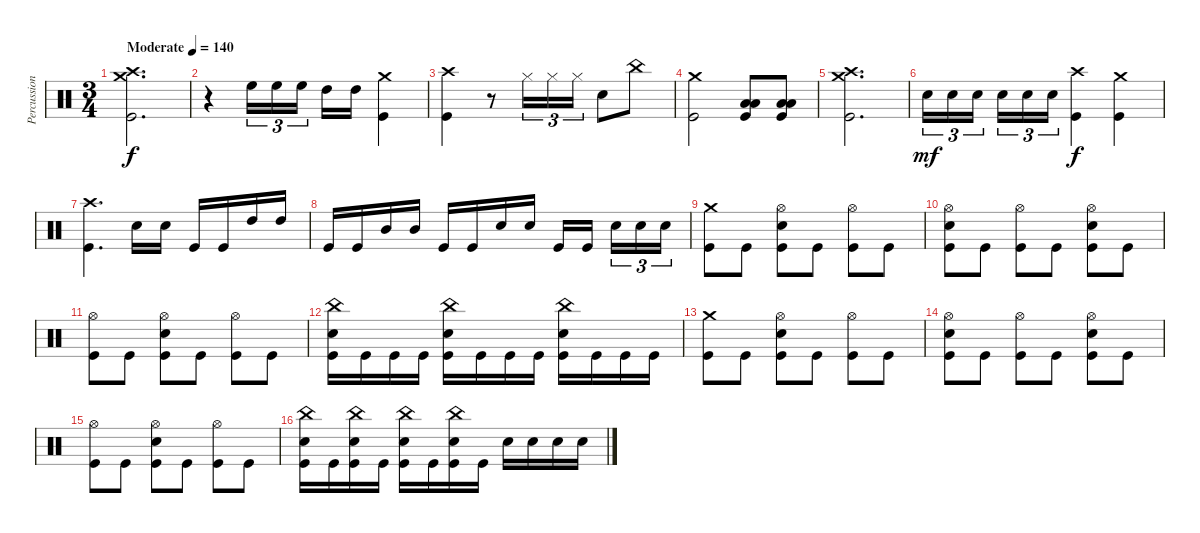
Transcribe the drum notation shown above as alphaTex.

\track ("Percussion" "Percussion") {instrument percussion}
\staff {score}
\articulation defaults
\ts (3 4)
\tempo (140 "Moderate")
\clef neutral
\ks c
("Crash high (hit)" "Crash medium (hit)" "Kick (hit)").2{d dy f} |
r.4 "High Floor Tom (hit)".16{tu (3 2)} "High Floor Tom (hit)".16{tu (3 2)} "High Floor Tom (hit)".16{tu (3 2) beam splitsecondary} "High Tom (hit)".16 "High Tom (hit)".16 ("Crash medium (hit)" "Kick (hit)").4 |
("Crash high (hit)" "Kick (hit)").4 r.8 "Hi-Hat (closed)".16{tu (3 2)} "Hi-Hat (closed)".16{tu (3 2)} "Hi-Hat (closed)".16{tu (3 2)} "Electric Snare (hit)".8 "China (hit)".8 |
("Crash medium (hit)" "Kick (hit)").2 ("Low Tom (hit)" "Low Floor Tom (hit)" "Kick (hit)").8 ("Low Tom (hit)" "Low Floor Tom (hit)" "Kick (hit)").8 |
("Crash high (hit)" "Crash medium (hit)" "Kick (hit)").2{d} |
"Electric Snare (hit)".16{tu (3 2) dy mf} "Electric Snare (hit)".16{tu (3 2)} "Electric Snare (hit)".16{tu (3 2) beam splitsecondary} "Electric Snare (hit)".16{tu (3 2)} "Electric Snare (hit)".16{tu (3 2)} "Electric Snare (hit)".16{tu (3 2)} ("Crash high (hit)" "Kick (hit)").4{dy f} ("Crash medium (hit)" "Kick (hit)").4 |
("Crash high (hit)" "Kick (hit)").4{d} "Electric Snare (hit)".16 "Electric Snare (hit)".16 "Kick (hit)".16 "Kick (hit)".16 "High Tom (hit)".16 "High Tom (hit)".16 |
"Kick (hit)".16 "Kick (hit)".16 "Mid Tom (hit)".16 "Mid Tom (hit)".16 "Kick (hit)".16 "Kick (hit)".16 "Electric Snare (hit)".16 "Electric Snare (hit)".16 "Kick (hit)".16 "Kick (hit)".16{beam splitsecondary} "Electric Snare (hit)".16{tu (3 2)} "Electric Snare (hit)".16{tu (3 2)} "Electric Snare (hit)".16{tu (3 2)} |
("Crash medium (hit)" "Kick (hit)").8 "Kick (hit)".8 ("Hi-Hat (open)" "Electric Snare (hit)" "Kick (hit)").8 "Kick (hit)".8 ("Hi-Hat (open)" "Kick (hit)").8 "Kick (hit)".8 |
("Hi-Hat (open)" "Electric Snare (hit)" "Kick (hit)").8 "Kick (hit)".8 ("Hi-Hat (open)" "Kick (hit)").8 "Kick (hit)".8 ("Hi-Hat (open)" "Electric Snare (hit)" "Kick (hit)").8 "Kick (hit)".8 |
("Hi-Hat (open)" "Kick (hit)").8 "Kick (hit)".8 ("Hi-Hat (open)" "Electric Snare (hit)" "Kick (hit)").8 "Kick (hit)".8 ("Hi-Hat (open)" "Kick (hit)").8 "Kick (hit)".8 |
("China (hit)" "Electric Snare (hit)" "Kick (hit)").16 "Kick (hit)".16 "Kick (hit)".16 "Kick (hit)".16 ("China (hit)" "Electric Snare (hit)" "Kick (hit)").16 "Kick (hit)".16 "Kick (hit)".16 "Kick (hit)".16 ("China (hit)" "Electric Snare (hit)" "Kick (hit)").16 "Kick (hit)".16 "Kick (hit)".16 "Kick (hit)".16 |
("Crash medium (hit)" "Kick (hit)").8 "Kick (hit)".8 ("Hi-Hat (open)" "Electric Snare (hit)" "Kick (hit)").8 "Kick (hit)".8 ("Hi-Hat (open)" "Kick (hit)").8 "Kick (hit)".8 |
("Hi-Hat (open)" "Electric Snare (hit)" "Kick (hit)").8 "Kick (hit)".8 ("Hi-Hat (open)" "Kick (hit)").8 "Kick (hit)".8 ("Hi-Hat (open)" "Electric Snare (hit)" "Kick (hit)").8 "Kick (hit)".8 |
("Hi-Hat (open)" "Kick (hit)").8 "Kick (hit)".8 ("Hi-Hat (open)" "Electric Snare (hit)" "Kick (hit)").8 "Kick (hit)".8 ("Hi-Hat (open)" "Kick (hit)").8 "Kick (hit)".8 |
("China (hit)" "Electric Snare (hit)" "Kick (hit)").16 "Kick (hit)".16 ("China (hit)" "Electric Snare (hit)" "Kick (hit)").16 "Kick (hit)".16 ("China (hit)" "Electric Snare (hit)" "Kick (hit)").16 "Kick (hit)".16 ("China (hit)" "Electric Snare (hit)" "Kick (hit)").16 "Kick (hit)".16 "Electric Snare (hit)".16 "Electric Snare (hit)".16 "Electric Snare (hit)".16 "Electric Snare (hit)".16
